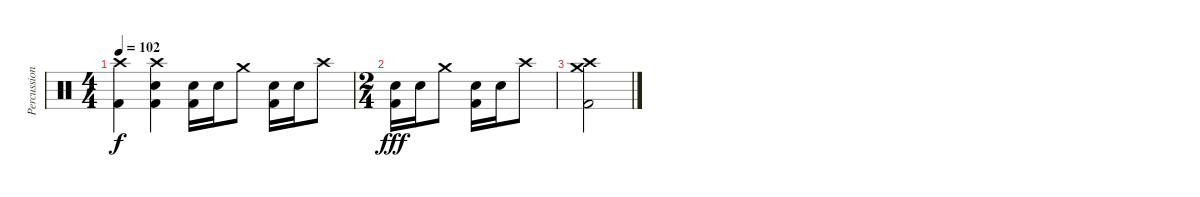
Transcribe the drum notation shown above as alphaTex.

\track ("Percussion" "Percussion") {instrument percussion}
\staff {score}
\articulation defaults
\ts (4 4)
\tempo 102
\clef neutral
\ks c
("Crash high (hit)" "Kick (hit) 2").4{dy f} ("Crash high (hit)" "Electric Snare (hit)" "Kick (hit) 2").4 ("Electric Snare (hit)" "Kick (hit) 2").16 "Electric Snare (hit)".16 "Crash medium (hit)".8 ("Electric Snare (hit)" "Kick (hit) 2").16 "Electric Snare (hit)".16 "Crash high (hit)".8 |
\ts (2 4)
("Electric Snare (hit)" "Kick (hit) 2").16{dy fff} "Electric Snare (hit)".16 "Crash medium (hit)".8 ("Electric Snare (hit)" "Kick (hit) 2").16 "Electric Snare (hit)".16 "Crash high (hit)".8 |
("Crash medium (hit)" "Crash high (hit)" "Kick (hit) 2").2
